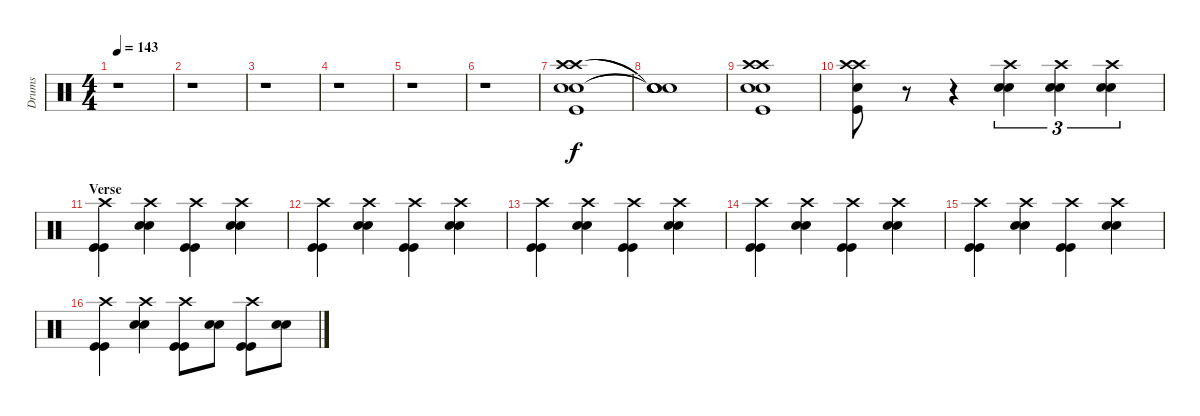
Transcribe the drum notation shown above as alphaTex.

\track ("Drums" "Drums") {instrument percussion}
\staff {score}
\articulation defaults
\ts (4 4)
\tempo 143
\clef neutral
\ks c
r.1{dy f} |
r.1 |
r.1 |
r.1 |
r.1 |
r.1 |
("Crash high (hit)" "Crash high (hit)" "Electric Snare (hit)" "Snare (hit) 2" "Kick (hit)").1 |
("Snare (hit)"{t} "Snare (hit)"{t} "Snare (hit)"{t} "Snare (hit)"{t}).1 |
("Crash high (hit)" "Crash high (hit)" "Electric Snare (hit)" "Snare (hit) 2" "Kick (hit)").1 |
("Crash high (hit)" "Crash high (hit)" "Electric Snare (hit)" "Kick (hit)").8 r.8 r.4 ("Crash high (hit)" "Electric Snare (hit)" "Electric Snare (hit)").4{tu (3 2)} ("Crash high (hit)" "Electric Snare (hit)" "Electric Snare (hit)").4{tu (3 2)} ("Crash high (hit)" "Electric Snare (hit)" "Electric Snare (hit)").4{tu (3 2)} |
\section ("" "Verse")
("Crash high (hit)" "Kick (hit)" "Kick (hit)").4 ("Crash high (hit)" "Electric Snare (hit)" "Electric Snare (hit)").4 ("Crash high (hit)" "Kick (hit)" "Kick (hit)").4 ("Crash high (hit)" "Electric Snare (hit)" "Electric Snare (hit)").4 |
("Crash high (hit)" "Kick (hit)" "Kick (hit)").4 ("Crash high (hit)" "Electric Snare (hit)" "Electric Snare (hit)").4 ("Crash high (hit)" "Kick (hit)" "Kick (hit)").4 ("Crash high (hit)" "Electric Snare (hit)" "Electric Snare (hit)").4 |
("Crash high (hit)" "Kick (hit)" "Kick (hit)").4 ("Crash high (hit)" "Electric Snare (hit)" "Electric Snare (hit)").4 ("Crash high (hit)" "Kick (hit)" "Kick (hit)").4 ("Crash high (hit)" "Electric Snare (hit)" "Electric Snare (hit)").4 |
("Crash high (hit)" "Kick (hit)" "Kick (hit)").4 ("Crash high (hit)" "Electric Snare (hit)" "Electric Snare (hit)").4 ("Crash high (hit)" "Kick (hit)" "Kick (hit)").4 ("Crash high (hit)" "Electric Snare (hit)" "Electric Snare (hit)").4 |
("Crash high (hit)" "Kick (hit)" "Kick (hit)").4 ("Crash high (hit)" "Electric Snare (hit)" "Electric Snare (hit)").4 ("Crash high (hit)" "Kick (hit)" "Kick (hit)").4 ("Crash high (hit)" "Electric Snare (hit)" "Electric Snare (hit)").4 |
("Crash high (hit)" "Kick (hit)" "Kick (hit)").4 ("Crash high (hit)" "Electric Snare (hit)" "Electric Snare (hit)").4 ("Crash high (hit)" "Kick (hit)" "Kick (hit)").8 ("Electric Snare (hit)" "Electric Snare (hit)").8 ("Crash high (hit)" "Kick (hit)" "Kick (hit)").8 ("Electric Snare (hit)" "Electric Snare (hit)").8
